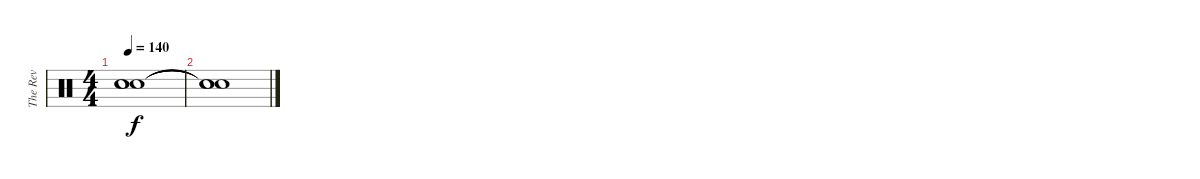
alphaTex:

\track ("The Rev" "The Rev") {instrument percussion}
\staff {score}
\articulation defaults
\ts (4 4)
\tempo 140
\clef neutral
\ks c
("Snare (hit)"{t} "Snare (hit)"{t} "Snare (hit)"{t}).1{dy f} |
("Snare (hit)"{t} "Snare (hit)"{t} "Snare (hit)"{t}).1
